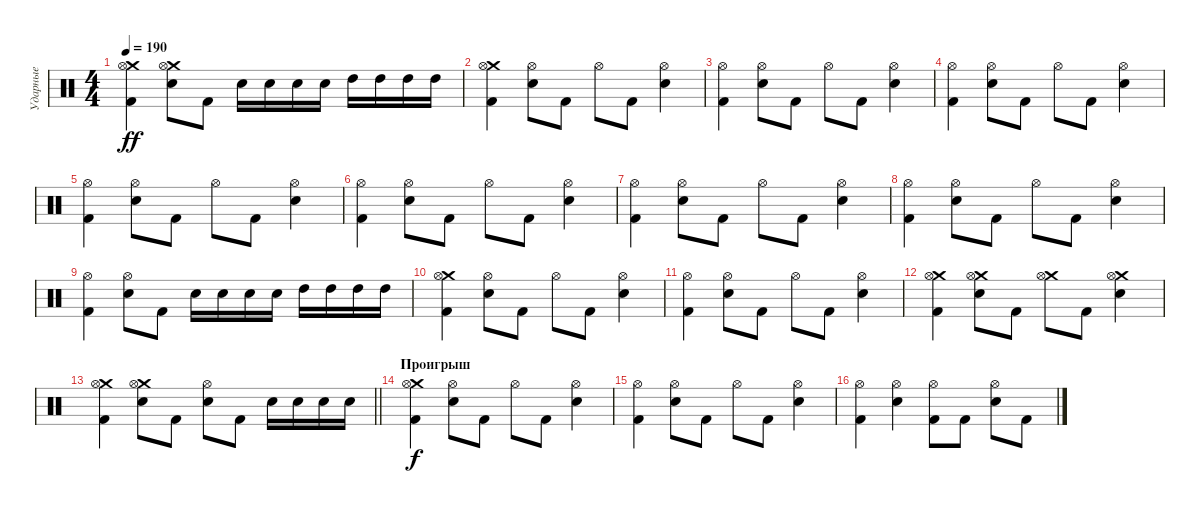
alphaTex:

\track ("Ударные" "Ударные") {instrument percussion}
\staff {score}
\articulation defaults
\ts (4 4)
\tempo 190
\clef neutral
\ks c
("Crash medium (hit)" "Kick (hit) 2" "Hi-Hat (open)").4{dy ff} ("Crash medium (hit)" "Electric Snare (hit)" "Hi-Hat (open)").8 "Kick (hit) 2".8 "Electric Snare (hit)".16 "Electric Snare (hit)".16 "Electric Snare (hit)".16 "Electric Snare (hit)".16 "High Tom (hit)".16 "High Tom (hit)".16 "High Tom (hit)".16 "High Tom (hit)".16 |
("Crash medium (hit)" "Kick (hit) 2" "Hi-Hat (open)").4 ("Electric Snare (hit)" "Hi-Hat (open)").8 "Kick (hit) 2".8 "Hi-Hat (open)".8 "Kick (hit) 2".8 ("Electric Snare (hit)" "Hi-Hat (open)").4 |
("Kick (hit) 2" "Hi-Hat (open)").4 ("Electric Snare (hit)" "Hi-Hat (open)").8 "Kick (hit) 2".8 "Hi-Hat (open)".8 "Kick (hit) 2".8 ("Electric Snare (hit)" "Hi-Hat (open)").4 |
("Kick (hit) 2" "Hi-Hat (open)").4 ("Electric Snare (hit)" "Hi-Hat (open)").8 "Kick (hit) 2".8 "Hi-Hat (open)".8 "Kick (hit) 2".8 ("Electric Snare (hit)" "Hi-Hat (open)").4 |
("Kick (hit) 2" "Hi-Hat (open)").4 ("Electric Snare (hit)" "Hi-Hat (open)").8 "Kick (hit) 2".8 "Hi-Hat (open)".8 "Kick (hit) 2".8 ("Electric Snare (hit)" "Hi-Hat (open)").4 |
("Kick (hit) 2" "Hi-Hat (open)").4 ("Electric Snare (hit)" "Hi-Hat (open)").8 "Kick (hit) 2".8 "Hi-Hat (open)".8 "Kick (hit) 2".8 ("Electric Snare (hit)" "Hi-Hat (open)").4 |
("Kick (hit) 2" "Hi-Hat (open)").4 ("Electric Snare (hit)" "Hi-Hat (open)").8 "Kick (hit) 2".8 "Hi-Hat (open)".8 "Kick (hit) 2".8 ("Electric Snare (hit)" "Hi-Hat (open)").4 |
("Kick (hit) 2" "Hi-Hat (open)").4 ("Electric Snare (hit)" "Hi-Hat (open)").8 "Kick (hit) 2".8 "Hi-Hat (open)".8 "Kick (hit) 2".8 ("Electric Snare (hit)" "Hi-Hat (open)").4 |
("Kick (hit) 2" "Hi-Hat (open)").4 ("Electric Snare (hit)" "Hi-Hat (open)").8 "Kick (hit) 2".8 "Electric Snare (hit)".16 "Electric Snare (hit)".16 "Electric Snare (hit)".16 "Electric Snare (hit)".16 "High Tom (hit)".16 "High Tom (hit)".16 "High Tom (hit)".16 "High Tom (hit)".16 |
("Crash medium (hit)" "Kick (hit) 2" "Hi-Hat (open)").4 ("Electric Snare (hit)" "Hi-Hat (open)").8 "Kick (hit) 2".8 "Hi-Hat (open)".8 "Kick (hit) 2".8 ("Electric Snare (hit)" "Hi-Hat (open)").4 |
("Kick (hit) 2" "Hi-Hat (open)").4 ("Electric Snare (hit)" "Hi-Hat (open)").8 "Kick (hit) 2".8 "Hi-Hat (open)".8 "Kick (hit) 2".8 ("Electric Snare (hit)" "Hi-Hat (open)").4 |
("Crash medium (hit)" "Kick (hit) 2" "Hi-Hat (open)").4 ("Crash medium (hit)" "Electric Snare (hit)" "Hi-Hat (open)").8 "Kick (hit) 2".8 ("Crash medium (hit)" "Hi-Hat (open)").8 "Kick (hit) 2".8 ("Crash medium (hit)" "Electric Snare (hit)" "Hi-Hat (open)").4 |
\barLineRight lightlight
("Crash medium (hit)" "Kick (hit) 2" "Hi-Hat (open)").4 ("Crash medium (hit)" "Electric Snare (hit)" "Hi-Hat (open)").8 "Kick (hit) 2".8 ("Electric Snare (hit)" "Hi-Hat (open)").8 "Kick (hit) 2".8 "Electric Snare (hit)".16 "Electric Snare (hit)".16 "Electric Snare (hit)".16 "Electric Snare (hit)".16 |
\section ("" "Проигрыш")
("Crash medium (hit)" "Kick (hit) 2" "Hi-Hat (open)").4{dy f} ("Electric Snare (hit)" "Hi-Hat (open)").8 "Kick (hit) 2".8 "Hi-Hat (open)".8 "Kick (hit) 2".8 ("Electric Snare (hit)" "Hi-Hat (open)").4 |
("Kick (hit) 2" "Hi-Hat (open)").4 ("Electric Snare (hit)" "Hi-Hat (open)").8 "Kick (hit) 2".8 "Hi-Hat (open)".8 "Kick (hit) 2".8 ("Electric Snare (hit)" "Hi-Hat (open)").4 |
("Kick (hit) 2" "Hi-Hat (open)").4 ("Electric Snare (hit)" "Hi-Hat (open)").4 ("Kick (hit) 2" "Hi-Hat (open)").8 "Kick (hit) 2".8 ("Electric Snare (hit)" "Hi-Hat (open)").8 "Kick (hit) 2".8
